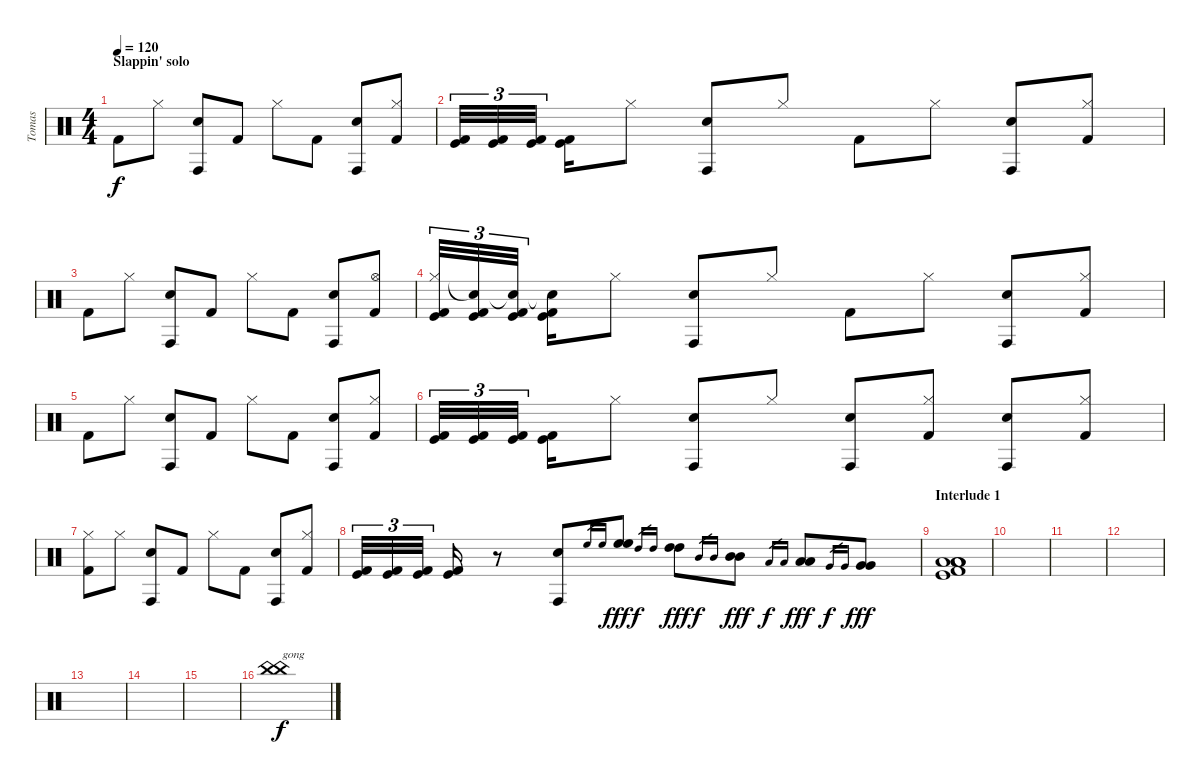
\track ("Tomas" "Tomas") {instrument percussion}
\staff {score}
\articulation defaults
\ts (4 4)
\section ("" "Slappin' solo")
\tempo 120
\clef neutral
\ks c "Kick (hit) 2".8{dy f} "Hi-Hat (closed)".8
("Conga high (hit)" "Electric Snare (hit)").8 "Kick (hit) 2".8 "Hi-Hat (closed)".8 "Kick (hit) 2".8 ("Conga high (hit)" "Electric Snare (hit)").8 ("Hi-Hat (closed)" "Kick (hit) 2").8 |
("Kick (hit)" "Kick (hit) 2").32{tu (3 2)} ("Kick (hit)" "Kick (hit) 2").32{tu (3 2)} ("Kick (hit)" "Kick (hit) 2").32{tu (3 2)} ("Kick (hit)" "Kick (hit) 2").16 "Hi-Hat (closed)".8 ("Conga high (hit)" "Electric Snare (hit)").8 "Hi-Hat (closed)".8 "Kick (hit) 2".8 "Hi-Hat (closed)".8 ("Conga high (hit)" "Electric Snare (hit)").8 ("Hi-Hat (closed)" "Kick (hit) 2").8 |
"Kick (hit) 2".8 "Hi-Hat (closed)".8 ("Conga high (hit)" "Electric Snare (hit)").8 "Kick (hit) 2".8 "Hi-Hat (closed)".8 "Kick (hit) 2".8 ("Conga high (hit)" "Electric Snare (hit)").8 ("Hi-Hat (open)" "Kick (hit) 2").8 |
("Hi-Hat (closed)" "Kick (hit)" "Kick (hit) 2").32{tu (3 2)} ("Snare (hit)"{t} "Kick (hit)" "Kick (hit) 2").32{tu (3 2)} ("Snare (hit)"{t} "Kick (hit)" "Kick (hit) 2").32{tu (3 2)} ("Snare (hit)"{t} "Kick (hit)" "Kick (hit) 2").16 "Hi-Hat (closed)".8 ("Conga high (hit)" "Electric Snare (hit)").8 "Hi-Hat (closed)".8 "Kick (hit) 2".8 "Hi-Hat (closed)".8 ("Conga high (hit)" "Electric Snare (hit)").8 ("Hi-Hat (closed)" "Kick (hit) 2").8 |
"Kick (hit) 2".8 "Hi-Hat (closed)".8 ("Conga high (hit)" "Electric Snare (hit)").8 "Kick (hit) 2".8 "Hi-Hat (closed)".8 "Kick (hit) 2".8 ("Conga high (hit)" "Electric Snare (hit)").8 ("Hi-Hat (closed)" "Kick (hit) 2").8 |
("Kick (hit)" "Kick (hit) 2").32{tu (3 2)} ("Kick (hit)" "Kick (hit) 2").32{tu (3 2)} ("Kick (hit)" "Kick (hit) 2").32{tu (3 2)} ("Kick (hit)" "Kick (hit) 2").16 "Hi-Hat (closed)".8 ("Conga high (hit)" "Electric Snare (hit)").8 "Hi-Hat (closed)".8 ("Conga high (hit)" "Electric Snare (hit)").8 ("Hi-Hat (closed)" "Kick (hit) 2").8 ("Conga high (hit)" "Electric Snare (hit)").8 ("Hi-Hat (closed)" "Kick (hit) 2").8 |
("Hi-Hat (closed)" "Kick (hit) 2").8 "Hi-Hat (closed)".8 ("Conga high (hit)" "Electric Snare (hit)").8 "Kick (hit) 2".8 "Hi-Hat (closed)".8 "Kick (hit) 2".8 ("Conga high (hit)" "Electric Snare (hit)").8 ("Hi-Hat (closed)" "Kick (hit) 2").8 |
("Kick (hit)" "Kick (hit) 2").32{tu (3 2)} ("Kick (hit)" "Kick (hit) 2").32{tu (3 2)} ("Kick (hit)" "Kick (hit) 2").32{tu (3 2)} ("Kick (hit)" "Kick (hit) 2").16 r.8 ("Conga high (hit)" "Electric Snare (hit)").8 "High Floor Tom (hit)".16{gr} "High Floor Tom (hit)".16{gr} ("High Floor Tom (hit)" "High Floor Tom (hit)").8{dy fff} "High Tom (hit)".16{gr dy f} "High Tom (hit)".16{gr} ("High Tom (hit)" "High Tom (hit)").8{dy fff} "Mid Tom (hit)".16{gr dy f} "Mid Tom (hit)".16{gr} ("Mid Tom (hit)" "Mid Tom (hit)").8{dy fff} "Low Tom (hit)".16{gr dy f} "Low Tom (hit)".16{gr} ("Low Tom (hit)" "Low Tom (hit)").8{dy fff} "Very Low Tom (hit)".16{gr dy f} "Very Low Tom (hit)".16{gr} ("Very Low Tom (hit)" "Very Low Tom (hit)").8{dy fff} |
\section ("" "Interlude 1")
("Low Floor Tom (hit)" "Kick (hit)" "Kick (hit) 2" "Low Floor Tom (hit)" "Low Floor Tom (hit)" "Low Floor Tom (hit)").1 |
|
|
|
|
|
|
("China (hit)" "China (hit)").1{txt "gong" dy f volume 16}
